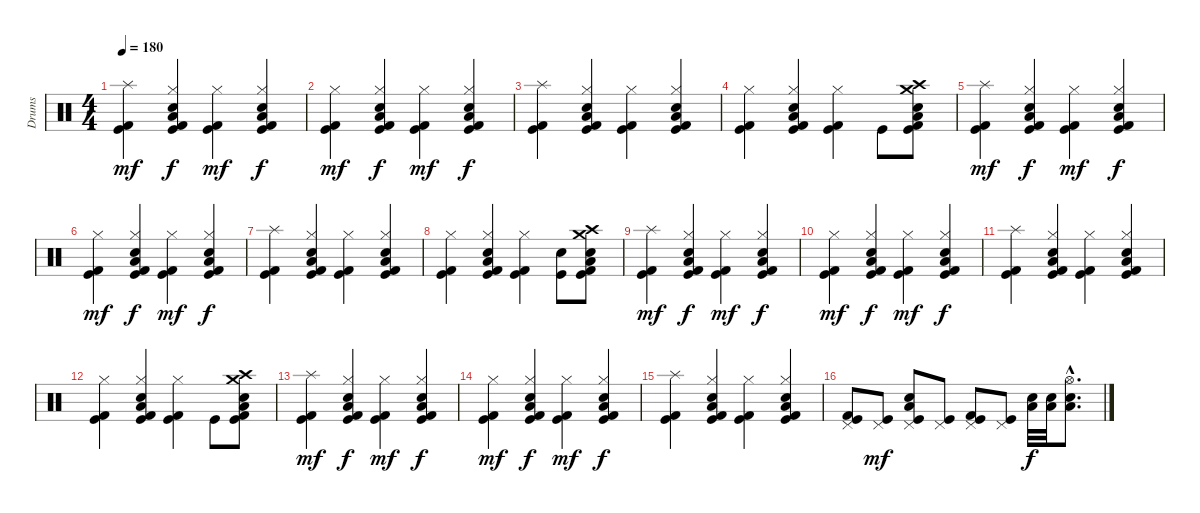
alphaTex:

\track ("Drums" "Drums") {instrument percussion}
\staff {score}
\articulation defaults
\ts (4 4)
\tempo 180
\clef neutral
\ks c
("Splash (hit)" "Kick (hit) 2" "Kick (hit)").4{dy mf} ("Hi-Hat (closed)" "Electric Snare (hit)" "Low Tom (hit)" "Kick (hit) 2" "Kick (hit)").4{dy f} ("Hi-Hat (closed)" "Kick (hit) 2" "Kick (hit)").4{dy mf} ("Hi-Hat (closed)" "Electric Snare (hit)" "Low Tom (hit)" "Kick (hit) 2" "Kick (hit)").4{dy f} |
("Hi-Hat (closed)" "Kick (hit) 2" "Kick (hit)").4{dy mf} ("Hi-Hat (closed)" "Electric Snare (hit)" "Low Tom (hit)" "Kick (hit) 2" "Kick (hit)").4{dy f} ("Hi-Hat (closed)" "Kick (hit) 2" "Kick (hit)").4{dy mf} ("Hi-Hat (closed)" "Electric Snare (hit)" "Low Tom (hit)" "Kick (hit) 2" "Kick (hit)").4{dy f} |
("Splash (hit)" "Kick (hit) 2" "Kick (hit)").4 ("Hi-Hat (closed)" "Electric Snare (hit)" "Low Tom (hit)" "Kick (hit) 2" "Kick (hit)").4 ("Hi-Hat (closed)" "Kick (hit) 2" "Kick (hit)").4 ("Hi-Hat (closed)" "Electric Snare (hit)" "Low Tom (hit)" "Kick (hit) 2" "Kick (hit)").4 |
("Hi-Hat (closed)" "Kick (hit) 2" "Kick (hit)").4 ("Hi-Hat (closed)" "Electric Snare (hit)" "Low Tom (hit)" "Kick (hit) 2" "Kick (hit)").4 ("Hi-Hat (closed)" "Kick (hit) 2" "Kick (hit)").4 "Kick (hit)".8 ("Crash high (hit)" "Electric Snare (hit)" "Low Tom (hit)" "Crash medium (hit)" "Kick (hit) 2" "Kick (hit)").8 |
("Splash (hit)" "Kick (hit) 2" "Kick (hit)").4{dy mf} ("Hi-Hat (closed)" "Electric Snare (hit)" "Low Tom (hit)" "Kick (hit) 2" "Kick (hit)").4{dy f} ("Hi-Hat (closed)" "Kick (hit) 2" "Kick (hit)").4{dy mf} ("Hi-Hat (closed)" "Electric Snare (hit)" "Low Tom (hit)" "Kick (hit) 2" "Kick (hit)").4{dy f} |
("Hi-Hat (closed)" "Kick (hit) 2" "Kick (hit)").4{dy mf} ("Hi-Hat (closed)" "Electric Snare (hit)" "Low Tom (hit)" "Kick (hit) 2" "Kick (hit)").4{dy f} ("Hi-Hat (closed)" "Kick (hit) 2" "Kick (hit)").4{dy mf} ("Hi-Hat (closed)" "Electric Snare (hit)" "Low Tom (hit)" "Kick (hit) 2" "Kick (hit)").4{dy f} |
("Splash (hit)" "Kick (hit) 2" "Kick (hit)").4 ("Hi-Hat (closed)" "Electric Snare (hit)" "Low Tom (hit)" "Kick (hit) 2" "Kick (hit)").4 ("Hi-Hat (closed)" "Kick (hit) 2" "Kick (hit)").4 ("Hi-Hat (closed)" "Electric Snare (hit)" "Low Tom (hit)" "Kick (hit) 2" "Kick (hit)").4 |
("Hi-Hat (closed)" "Kick (hit) 2" "Kick (hit)").4 ("Hi-Hat (closed)" "Electric Snare (hit)" "Low Tom (hit)" "Kick (hit) 2" "Kick (hit)").4 ("Hi-Hat (closed)" "Kick (hit) 2" "Kick (hit)").4 ("Electric Snare (hit)" "Kick (hit)").8 ("Crash high (hit)" "Electric Snare (hit)" "Low Tom (hit)" "Crash medium (hit)" "Kick (hit) 2" "Kick (hit)").8 |
("Splash (hit)" "Kick (hit) 2" "Kick (hit)").4{dy mf} ("Hi-Hat (closed)" "Electric Snare (hit)" "Low Tom (hit)" "Kick (hit) 2" "Kick (hit)").4{dy f} ("Hi-Hat (closed)" "Kick (hit) 2" "Kick (hit)").4{dy mf} ("Hi-Hat (closed)" "Electric Snare (hit)" "Low Tom (hit)" "Kick (hit) 2" "Kick (hit)").4{dy f} |
("Hi-Hat (closed)" "Kick (hit) 2" "Kick (hit)").4{dy mf} ("Hi-Hat (closed)" "Electric Snare (hit)" "Low Tom (hit)" "Kick (hit) 2" "Kick (hit)").4{dy f} ("Hi-Hat (closed)" "Kick (hit) 2" "Kick (hit)").4{dy mf} ("Hi-Hat (closed)" "Electric Snare (hit)" "Low Tom (hit)" "Kick (hit) 2" "Kick (hit)").4{dy f} |
("Splash (hit)" "Kick (hit) 2" "Kick (hit)").4 ("Hi-Hat (closed)" "Electric Snare (hit)" "Low Tom (hit)" "Kick (hit) 2" "Kick (hit)").4 ("Hi-Hat (closed)" "Kick (hit) 2" "Kick (hit)").4 ("Hi-Hat (closed)" "Electric Snare (hit)" "Low Tom (hit)" "Kick (hit) 2" "Kick (hit)").4 |
("Hi-Hat (closed)" "Kick (hit) 2" "Kick (hit)").4 ("Hi-Hat (closed)" "Electric Snare (hit)" "Low Tom (hit)" "Kick (hit) 2" "Kick (hit)").4 ("Hi-Hat (closed)" "Kick (hit) 2" "Kick (hit)").4 "Kick (hit)".8 ("Crash high (hit)" "Electric Snare (hit)" "Low Tom (hit)" "Crash medium (hit)" "Kick (hit) 2" "Kick (hit)").8 |
("Splash (hit)" "Kick (hit) 2" "Kick (hit)").4{dy mf} ("Hi-Hat (closed)" "Electric Snare (hit)" "Low Tom (hit)" "Kick (hit) 2" "Kick (hit)").4{dy f} ("Hi-Hat (closed)" "Kick (hit) 2" "Kick (hit)").4{dy mf} ("Hi-Hat (closed)" "Electric Snare (hit)" "Low Tom (hit)" "Kick (hit) 2" "Kick (hit)").4{dy f} |
("Hi-Hat (closed)" "Kick (hit) 2" "Kick (hit)").4{dy mf} ("Hi-Hat (closed)" "Electric Snare (hit)" "Low Tom (hit)" "Kick (hit) 2" "Kick (hit)").4{dy f} ("Hi-Hat (closed)" "Kick (hit) 2" "Kick (hit)").4{dy mf} ("Hi-Hat (closed)" "Electric Snare (hit)" "Low Tom (hit)" "Kick (hit) 2" "Kick (hit)").4{dy f} |
("Splash (hit)" "Kick (hit) 2" "Kick (hit)").4 ("Hi-Hat (closed)" "Electric Snare (hit)" "Low Tom (hit)" "Kick (hit) 2" "Kick (hit)").4 ("Hi-Hat (closed)" "Kick (hit) 2" "Kick (hit)").4 ("Hi-Hat (closed)" "Electric Snare (hit)" "Low Tom (hit)" "Kick (hit) 2" "Kick (hit)").4 |
("Pedal Hi-Hat (hit)" "Kick (hit) 2" "Kick (hit)").8 ("Pedal Hi-Hat (hit)" "Kick (hit)").8{dy mf} ("Pedal Hi-Hat (hit)" "Electric Snare (hit)" "Low Tom (hit)" "Kick (hit)").8 ("Pedal Hi-Hat (hit)" "Kick (hit)").8 ("Pedal Hi-Hat (hit)" "Kick (hit) 2" "Kick (hit)").8 ("Pedal Hi-Hat (hit)" "Kick (hit)").8 ("Electric Snare (hit)" "Low Tom (hit)").32{dy f} ("Electric Snare (hit)" "Low Tom (hit)").32 ("Hi-Hat (open)"{hac} "Electric Snare (hit)"{hac} "Low Tom (hit)"{hac}).8{d}
